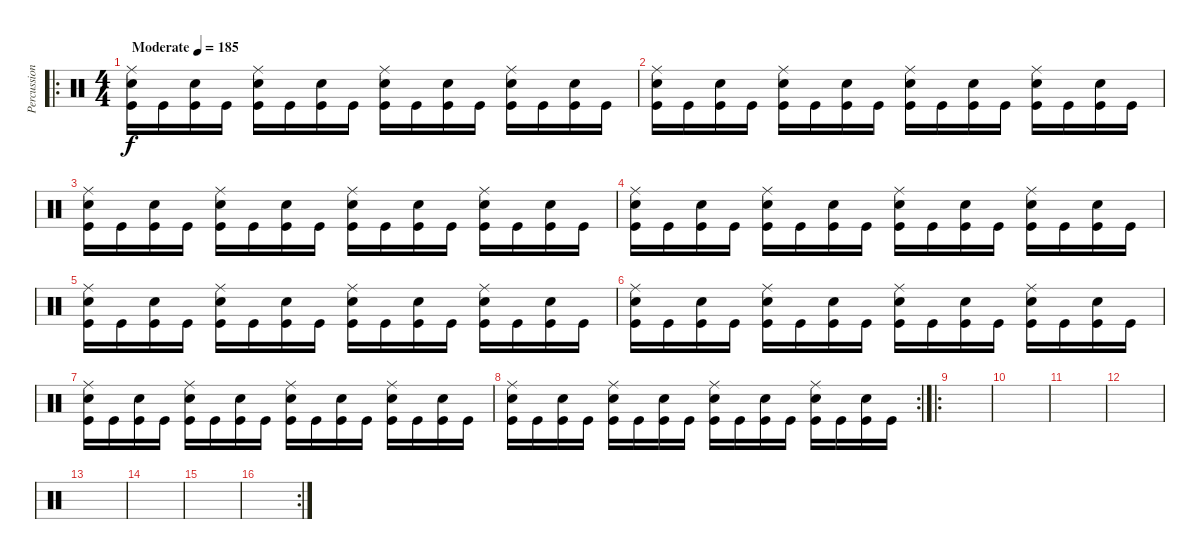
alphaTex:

\track ("Percussion" "Percussion") {instrument percussion}
\staff {score}
\articulation defaults
\ro
\ts (4 4)
\tempo (185 "Moderate")
\clef neutral
\ks c
("Ride (middle)" "Electric Snare (hit)" "Kick (hit)").16{dy f} "Kick (hit)".16 ("Electric Snare (hit)" "Kick (hit)").16 "Kick (hit)".16 ("Ride (middle)" "Electric Snare (hit)" "Kick (hit)").16 "Kick (hit)".16 ("Electric Snare (hit)" "Kick (hit)").16 "Kick (hit)".16 ("Ride (middle)" "Electric Snare (hit)" "Kick (hit)").16 "Kick (hit)".16 ("Electric Snare (hit)" "Kick (hit)").16 "Kick (hit)".16 ("Ride (middle)" "Electric Snare (hit)" "Kick (hit)").16 "Kick (hit)".16 ("Electric Snare (hit)" "Kick (hit)").16 "Kick (hit)".16 |
("Ride (middle)" "Electric Snare (hit)" "Kick (hit)").16 "Kick (hit)".16 ("Electric Snare (hit)" "Kick (hit)").16 "Kick (hit)".16 ("Ride (middle)" "Electric Snare (hit)" "Kick (hit)").16 "Kick (hit)".16 ("Electric Snare (hit)" "Kick (hit)").16 "Kick (hit)".16 ("Ride (middle)" "Electric Snare (hit)" "Kick (hit)").16 "Kick (hit)".16 ("Electric Snare (hit)" "Kick (hit)").16 "Kick (hit)".16 ("Ride (middle)" "Electric Snare (hit)" "Kick (hit)").16 "Kick (hit)".16 ("Electric Snare (hit)" "Kick (hit)").16 "Kick (hit)".16 |
("Ride (middle)" "Electric Snare (hit)" "Kick (hit)").16 "Kick (hit)".16 ("Electric Snare (hit)" "Kick (hit)").16 "Kick (hit)".16 ("Ride (middle)" "Electric Snare (hit)" "Kick (hit)").16 "Kick (hit)".16 ("Electric Snare (hit)" "Kick (hit)").16 "Kick (hit)".16 ("Ride (middle)" "Electric Snare (hit)" "Kick (hit)").16 "Kick (hit)".16 ("Electric Snare (hit)" "Kick (hit)").16 "Kick (hit)".16 ("Ride (middle)" "Electric Snare (hit)" "Kick (hit)").16 "Kick (hit)".16 ("Electric Snare (hit)" "Kick (hit)").16 "Kick (hit)".16 |
("Ride (middle)" "Electric Snare (hit)" "Kick (hit)").16 "Kick (hit)".16 ("Electric Snare (hit)" "Kick (hit)").16 "Kick (hit)".16 ("Ride (middle)" "Electric Snare (hit)" "Kick (hit)").16 "Kick (hit)".16 ("Electric Snare (hit)" "Kick (hit)").16 "Kick (hit)".16 ("Ride (middle)" "Electric Snare (hit)" "Kick (hit)").16 "Kick (hit)".16 ("Electric Snare (hit)" "Kick (hit)").16 "Kick (hit)".16 ("Ride (middle)" "Electric Snare (hit)" "Kick (hit)").16 "Kick (hit)".16 ("Electric Snare (hit)" "Kick (hit)").16 "Kick (hit)".16 |
("Ride (middle)" "Electric Snare (hit)" "Kick (hit)").16 "Kick (hit)".16 ("Electric Snare (hit)" "Kick (hit)").16 "Kick (hit)".16 ("Ride (middle)" "Electric Snare (hit)" "Kick (hit)").16 "Kick (hit)".16 ("Electric Snare (hit)" "Kick (hit)").16 "Kick (hit)".16 ("Ride (middle)" "Electric Snare (hit)" "Kick (hit)").16 "Kick (hit)".16 ("Electric Snare (hit)" "Kick (hit)").16 "Kick (hit)".16 ("Ride (middle)" "Electric Snare (hit)" "Kick (hit)").16 "Kick (hit)".16 ("Electric Snare (hit)" "Kick (hit)").16 "Kick (hit)".16 |
("Ride (middle)" "Electric Snare (hit)" "Kick (hit)").16 "Kick (hit)".16 ("Electric Snare (hit)" "Kick (hit)").16 "Kick (hit)".16 ("Ride (middle)" "Electric Snare (hit)" "Kick (hit)").16 "Kick (hit)".16 ("Electric Snare (hit)" "Kick (hit)").16 "Kick (hit)".16 ("Ride (middle)" "Electric Snare (hit)" "Kick (hit)").16 "Kick (hit)".16 ("Electric Snare (hit)" "Kick (hit)").16 "Kick (hit)".16 ("Ride (middle)" "Electric Snare (hit)" "Kick (hit)").16 "Kick (hit)".16 ("Electric Snare (hit)" "Kick (hit)").16 "Kick (hit)".16 |
("Ride (middle)" "Electric Snare (hit)" "Kick (hit)").16 "Kick (hit)".16 ("Electric Snare (hit)" "Kick (hit)").16 "Kick (hit)".16 ("Ride (middle)" "Electric Snare (hit)" "Kick (hit)").16 "Kick (hit)".16 ("Electric Snare (hit)" "Kick (hit)").16 "Kick (hit)".16 ("Ride (middle)" "Electric Snare (hit)" "Kick (hit)").16 "Kick (hit)".16 ("Electric Snare (hit)" "Kick (hit)").16 "Kick (hit)".16 ("Ride (middle)" "Electric Snare (hit)" "Kick (hit)").16 "Kick (hit)".16 ("Electric Snare (hit)" "Kick (hit)").16 "Kick (hit)".16 |
\rc 2
("Ride (middle)" "Electric Snare (hit)" "Kick (hit)").16 "Kick (hit)".16 ("Electric Snare (hit)" "Kick (hit)").16 "Kick (hit)".16 ("Ride (middle)" "Electric Snare (hit)" "Kick (hit)").16 "Kick (hit)".16 ("Electric Snare (hit)" "Kick (hit)").16 "Kick (hit)".16 ("Ride (middle)" "Electric Snare (hit)" "Kick (hit)").16 "Kick (hit)".16 ("Electric Snare (hit)" "Kick (hit)").16 "Kick (hit)".16 ("Ride (middle)" "Electric Snare (hit)" "Kick (hit)").16 "Kick (hit)".16 ("Electric Snare (hit)" "Kick (hit)").16 "Kick (hit)".16 |
\ro
|
|
|
|
|
|
|
\rc 2
